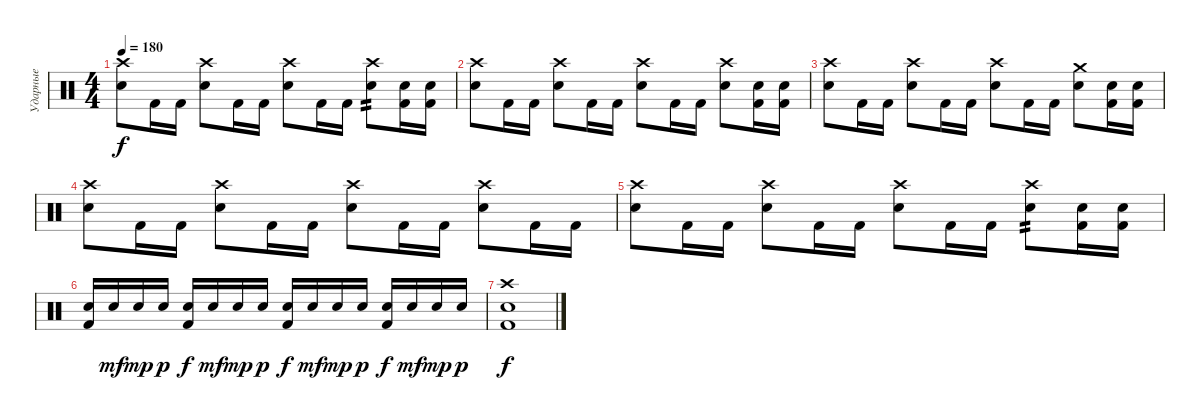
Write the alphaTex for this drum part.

\track ("Ударные" "Ударные") {instrument percussion}
\staff {score}
\articulation defaults
\ts (4 4)
\tempo 180
\clef neutral
\ks c
("Crash high (hit)" "Electric Snare (hit)").8{dy f} "Kick (hit) 2".16 "Kick (hit) 2".16 ("Crash high (hit)" "Electric Snare (hit)").8 "Kick (hit) 2".16 "Kick (hit) 2".16 ("Crash high (hit)" "Electric Snare (hit)").8 "Kick (hit) 2".16 "Kick (hit) 2".16 ("Crash high (hit)" "Electric Snare (hit)").8{tp 2} ("Electric Snare (hit)" "Kick (hit) 2").16 ("Electric Snare (hit)" "Kick (hit) 2").16 |
("Crash high (hit)" "Electric Snare (hit)").8 "Kick (hit) 2".16 "Kick (hit) 2".16 ("Crash high (hit)" "Electric Snare (hit)").8 "Kick (hit) 2".16 "Kick (hit) 2".16 ("Crash high (hit)" "Electric Snare (hit)").8 "Kick (hit) 2".16 "Kick (hit) 2".16 ("Crash high (hit)" "Electric Snare (hit)").8 ("Electric Snare (hit)" "Kick (hit) 2").16 ("Electric Snare (hit)" "Kick (hit) 2").16 |
("Crash high (hit)" "Electric Snare (hit)").8 "Kick (hit) 2".16 "Kick (hit) 2".16 ("Crash high (hit)" "Electric Snare (hit)").8 "Kick (hit) 2".16 "Kick (hit) 2".16 ("Crash high (hit)" "Electric Snare (hit)").8 "Kick (hit) 2".16 "Kick (hit) 2".16 ("Crash medium (hit)" "Electric Snare (hit)").8 ("Electric Snare (hit)" "Kick (hit) 2").16 ("Electric Snare (hit)" "Kick (hit) 2").16 |
("Crash high (hit)" "Electric Snare (hit)").8 "Kick (hit) 2".16 "Kick (hit) 2".16 ("Crash high (hit)" "Electric Snare (hit)").8 "Kick (hit) 2".16 "Kick (hit) 2".16 ("Crash high (hit)" "Electric Snare (hit)").8 "Kick (hit) 2".16 "Kick (hit) 2".16 ("Crash high (hit)" "Electric Snare (hit)").8 "Kick (hit) 2".16 "Kick (hit) 2".16 |
("Crash high (hit)" "Electric Snare (hit)").8 "Kick (hit) 2".16 "Kick (hit) 2".16 ("Crash high (hit)" "Electric Snare (hit)").8 "Kick (hit) 2".16 "Kick (hit) 2".16 ("Crash high (hit)" "Electric Snare (hit)").8 "Kick (hit) 2".16 "Kick (hit) 2".16 ("Crash high (hit)" "Electric Snare (hit)").8{tp 2} ("Electric Snare (hit)" "Kick (hit) 2").16 ("Electric Snare (hit)" "Kick (hit) 2").16 |
("Electric Snare (hit)" "Kick (hit) 2").16 "Electric Snare (hit)".16{dy mf} "Electric Snare (hit)".16{dy mp} "Electric Snare (hit)".16{dy p} ("Electric Snare (hit)" "Kick (hit) 2").16{dy f} "Electric Snare (hit)".16{dy mf} "Electric Snare (hit)".16{dy mp} "Electric Snare (hit)".16{dy p} ("Electric Snare (hit)" "Kick (hit) 2").16{dy f} "Electric Snare (hit)".16{dy mf} "Electric Snare (hit)".16{dy mp} "Electric Snare (hit)".16{dy p} ("Electric Snare (hit)" "Kick (hit) 2").16{dy f} "Electric Snare (hit)".16{dy mf} "Electric Snare (hit)".16{dy mp} "Electric Snare (hit)".16{dy p} |
("Crash high (hit)" "Electric Snare (hit)" "Kick (hit) 2").1{dy f}
